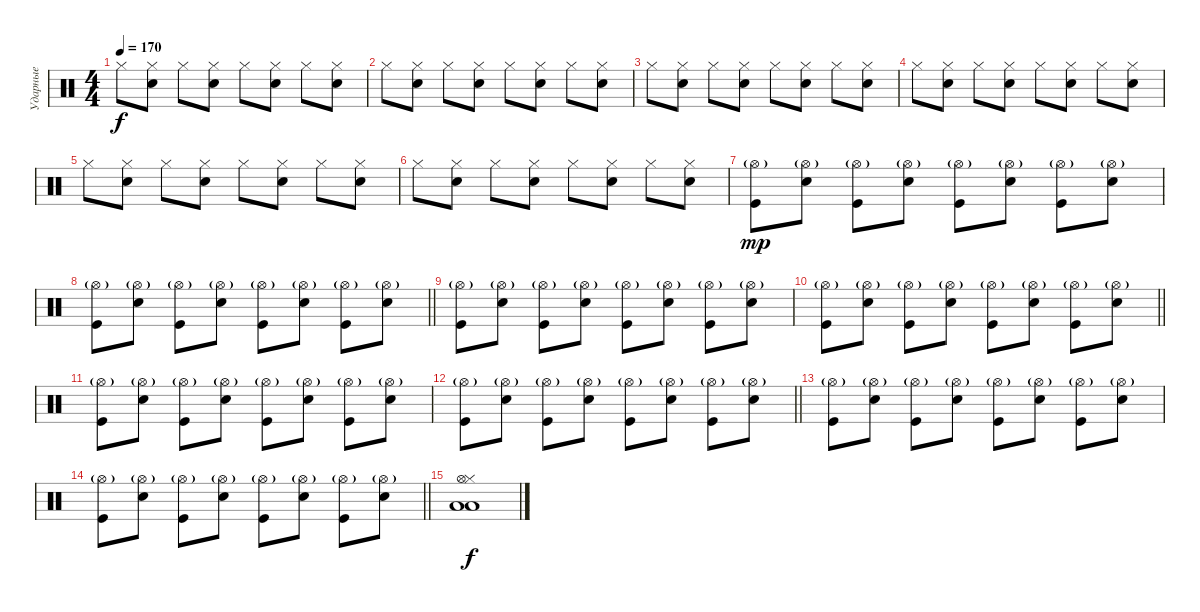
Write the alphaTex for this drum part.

\track ("Ударные" "Ударные") {instrument percussion}
\staff {score}
\articulation defaults
\ts (4 4)
\tempo 170
\clef neutral
\ks c "Hi-Hat (closed)".8{dy f}
("Hi-Hat (closed)" "Snare (hit) 2").8 "Hi-Hat (closed)".8 ("Hi-Hat (closed)" "Snare (hit) 2").8 "Hi-Hat (closed)".8 ("Hi-Hat (closed)" "Snare (hit) 2").8 "Hi-Hat (closed)".8 ("Hi-Hat (closed)" "Snare (hit) 2").8 |
"Hi-Hat (closed)".8 ("Hi-Hat (closed)" "Snare (hit) 2").8 "Hi-Hat (closed)".8 ("Hi-Hat (closed)" "Snare (hit) 2").8 "Hi-Hat (closed)".8 ("Hi-Hat (closed)" "Snare (hit) 2").8 "Hi-Hat (closed)".8 ("Hi-Hat (closed)" "Snare (hit) 2").8 |
"Hi-Hat (closed)".8 ("Hi-Hat (closed)" "Snare (hit) 2").8 "Hi-Hat (closed)".8 ("Hi-Hat (closed)" "Snare (hit) 2").8 "Hi-Hat (closed)".8 ("Hi-Hat (closed)" "Snare (hit) 2").8 "Hi-Hat (closed)".8 ("Hi-Hat (closed)" "Snare (hit) 2").8 |
"Hi-Hat (closed)".8 ("Hi-Hat (closed)" "Snare (hit) 2").8 "Hi-Hat (closed)".8 ("Hi-Hat (closed)" "Snare (hit) 2").8 "Hi-Hat (closed)".8 ("Hi-Hat (closed)" "Snare (hit) 2").8 "Hi-Hat (closed)".8 ("Hi-Hat (closed)" "Snare (hit) 2").8 |
"Hi-Hat (closed)".8 ("Hi-Hat (closed)" "Snare (hit) 2").8 "Hi-Hat (closed)".8 ("Hi-Hat (closed)" "Snare (hit) 2").8 "Hi-Hat (closed)".8 ("Hi-Hat (closed)" "Snare (hit) 2").8 "Hi-Hat (closed)".8 ("Hi-Hat (closed)" "Snare (hit) 2").8 |
"Hi-Hat (closed)".8 ("Hi-Hat (closed)" "Snare (hit) 2").8 "Hi-Hat (closed)".8 ("Hi-Hat (closed)" "Snare (hit) 2").8 "Hi-Hat (closed)".8 ("Hi-Hat (closed)" "Snare (hit) 2").8 "Hi-Hat (closed)".8 ("Hi-Hat (closed)" "Snare (hit) 2").8 |
("Hi-Hat (open)"{g} "Kick (hit)").8{dy mp} ("Hi-Hat (open)"{g} "Snare (hit) 2").8 ("Hi-Hat (open)"{g} "Kick (hit)").8 ("Hi-Hat (open)"{g} "Snare (hit) 2").8 ("Hi-Hat (open)"{g} "Kick (hit)").8 ("Hi-Hat (open)"{g} "Snare (hit) 2").8 ("Hi-Hat (open)"{g} "Kick (hit)").8 ("Hi-Hat (open)"{g} "Snare (hit) 2").8 |
\barLineRight lightlight
("Hi-Hat (open)"{g} "Kick (hit)").8 ("Hi-Hat (open)"{g} "Snare (hit) 2").8 ("Hi-Hat (open)"{g} "Kick (hit)").8 ("Hi-Hat (open)"{g} "Snare (hit) 2").8 ("Hi-Hat (open)"{g} "Kick (hit)").8 ("Hi-Hat (open)"{g} "Snare (hit) 2").8 ("Hi-Hat (open)"{g} "Kick (hit)").8 ("Hi-Hat (open)"{g} "Snare (hit) 2").8 |
("Hi-Hat (open)"{g} "Kick (hit)").8 ("Hi-Hat (open)"{g} "Snare (hit) 2").8 ("Hi-Hat (open)"{g} "Kick (hit)").8 ("Hi-Hat (open)"{g} "Snare (hit) 2").8 ("Hi-Hat (open)"{g} "Kick (hit)").8 ("Hi-Hat (open)"{g} "Snare (hit) 2").8 ("Hi-Hat (open)"{g} "Kick (hit)").8 ("Hi-Hat (open)"{g} "Snare (hit) 2").8 |
\barLineRight lightlight
("Hi-Hat (open)"{g} "Kick (hit)").8 ("Hi-Hat (open)"{g} "Snare (hit) 2").8 ("Hi-Hat (open)"{g} "Kick (hit)").8 ("Hi-Hat (open)"{g} "Snare (hit) 2").8 ("Hi-Hat (open)"{g} "Kick (hit)").8 ("Hi-Hat (open)"{g} "Snare (hit) 2").8 ("Hi-Hat (open)"{g} "Kick (hit)").8 ("Hi-Hat (open)"{g} "Snare (hit) 2").8 |
("Hi-Hat (open)"{g} "Kick (hit)").8 ("Hi-Hat (open)"{g} "Snare (hit) 2").8 ("Hi-Hat (open)"{g} "Kick (hit)").8 ("Hi-Hat (open)"{g} "Snare (hit) 2").8 ("Hi-Hat (open)"{g} "Kick (hit)").8 ("Hi-Hat (open)"{g} "Snare (hit) 2").8 ("Hi-Hat (open)"{g} "Kick (hit)").8 ("Hi-Hat (open)"{g} "Snare (hit) 2").8 |
\barLineRight lightlight
("Hi-Hat (open)"{g} "Kick (hit)").8 ("Hi-Hat (open)"{g} "Snare (hit) 2").8 ("Hi-Hat (open)"{g} "Kick (hit)").8 ("Hi-Hat (open)"{g} "Snare (hit) 2").8 ("Hi-Hat (open)"{g} "Kick (hit)").8 ("Hi-Hat (open)"{g} "Snare (hit) 2").8 ("Hi-Hat (open)"{g} "Kick (hit)").8 ("Hi-Hat (open)"{g} "Snare (hit) 2").8 |
("Hi-Hat (open)"{g} "Kick (hit)").8 ("Hi-Hat (open)"{g} "Snare (hit) 2").8 ("Hi-Hat (open)"{g} "Kick (hit)").8 ("Hi-Hat (open)"{g} "Snare (hit) 2").8 ("Hi-Hat (open)"{g} "Kick (hit)").8 ("Hi-Hat (open)"{g} "Snare (hit) 2").8 ("Hi-Hat (open)"{g} "Kick (hit)").8 ("Hi-Hat (open)"{g} "Snare (hit) 2").8 |
\barLineRight lightlight
("Hi-Hat (open)"{g} "Kick (hit)").8 ("Hi-Hat (open)"{g} "Snare (hit) 2").8 ("Hi-Hat (open)"{g} "Kick (hit)").8 ("Hi-Hat (open)"{g} "Snare (hit) 2").8 ("Hi-Hat (open)"{g} "Kick (hit)").8 ("Hi-Hat (open)"{g} "Snare (hit) 2").8 ("Hi-Hat (open)"{g} "Kick (hit)").8 ("Hi-Hat (open)"{g} "Snare (hit) 2").8 |
("Low Floor Tom (hit)" "Hi-Hat (closed)" "Hi-Hat (open)" "Low Tom (hit)").1{dy f}
